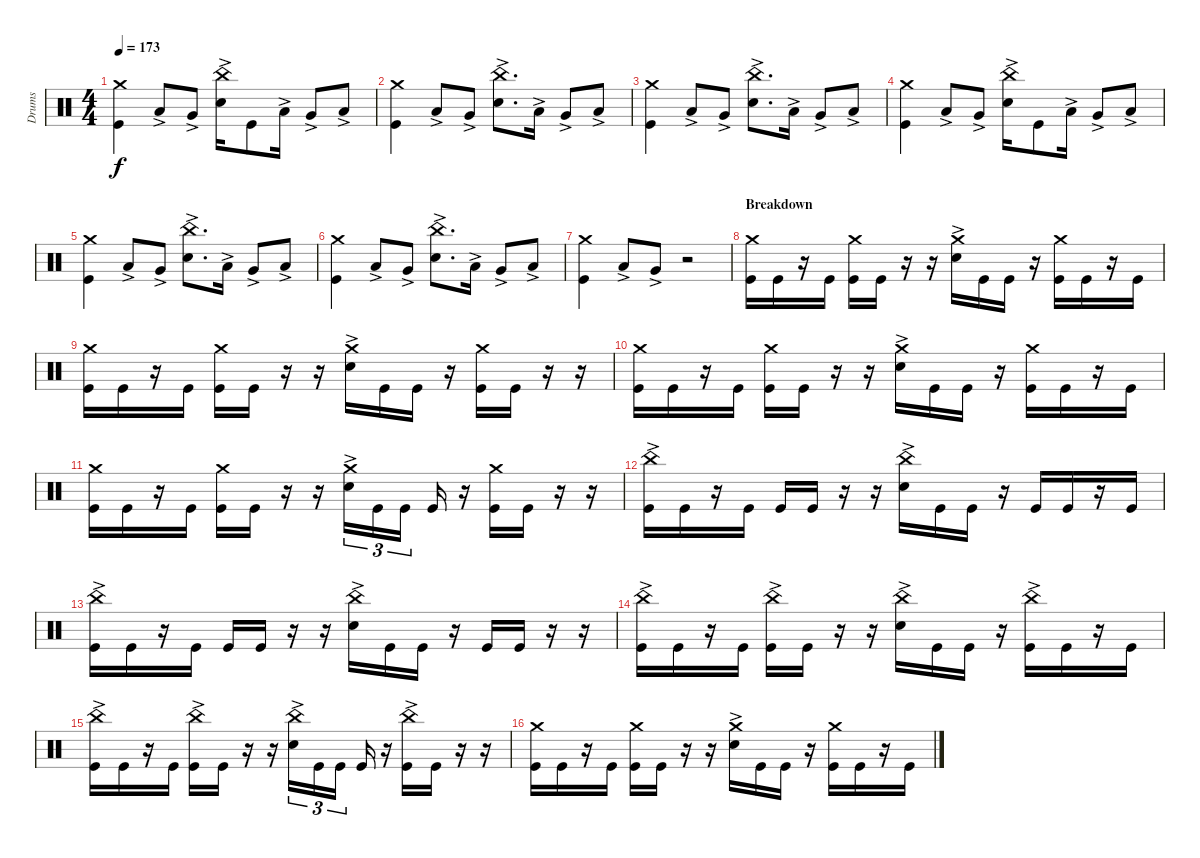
\track ("Drums" "Drums") {instrument percussion}
\staff {score}
\articulation defaults
\ts (4 4)
\tempo 173
\clef neutral
\ks c
("Kick (hit)" "Crash medium (hit)").4{dy f} "Low Tom (hit)"{ac}.8 "Very Low Tom (hit)"{ac}.8 ("Snare (hit) 2"{ac} "China (hit)"{ac}).16 "Kick (hit)".8 "Low Tom (hit)"{ac}.16 "Very Low Tom (hit)"{ac}.8 "Low Floor Tom (hit)"{ac}.8 |
("Kick (hit)" "Crash medium (hit)").4 "Low Tom (hit)"{ac}.8 "Very Low Tom (hit)"{ac}.8 ("Snare (hit) 2"{ac} "China (hit)"{ac}).8{d} "Low Tom (hit)"{ac}.16 "Very Low Tom (hit)"{ac}.8 "Low Floor Tom (hit)"{ac}.8 |
("Kick (hit)" "Crash medium (hit)").4 "Low Tom (hit)"{ac}.8 "Very Low Tom (hit)"{ac}.8 ("Snare (hit) 2"{ac} "China (hit)"{ac}).8{d} "Low Tom (hit)"{ac}.16 "Very Low Tom (hit)"{ac}.8 "Low Floor Tom (hit)"{ac}.8 |
("Kick (hit)" "Crash medium (hit)").4 "Low Tom (hit)"{ac}.8 "Very Low Tom (hit)"{ac}.8 ("Snare (hit) 2"{ac} "China (hit)"{ac}).16 "Kick (hit)".8 "Low Tom (hit)"{ac}.16 "Very Low Tom (hit)"{ac}.8 "Low Floor Tom (hit)"{ac}.8 |
("Kick (hit)" "Crash medium (hit)").4 "Low Tom (hit)"{ac}.8 "Very Low Tom (hit)"{ac}.8 ("Snare (hit) 2"{ac} "China (hit)"{ac}).8{d} "Low Tom (hit)"{ac}.16 "Very Low Tom (hit)"{ac}.8 "Low Floor Tom (hit)"{ac}.8 |
("Kick (hit)" "Crash medium (hit)").4 "Low Tom (hit)"{ac}.8 "Very Low Tom (hit)"{ac}.8 ("Snare (hit) 2"{ac} "China (hit)"{ac}).8{d} "Low Tom (hit)"{ac}.16 "Very Low Tom (hit)"{ac}.8 "Low Floor Tom (hit)"{ac}.8 |
("Kick (hit)" "Crash medium (hit)").4 "Low Tom (hit)"{ac}.8 "Very Low Tom (hit)"{ac}.8 r.2 |
\section ("" "Breakdown")
("Crash medium (hit)" "Kick (hit)").16 "Kick (hit)".16 r.16 "Kick (hit)".16 ("Crash medium (hit)" "Kick (hit)").16 "Kick (hit)".16 r.16 r.16 ("Crash medium (hit)" "Snare (hit) 2"{ac}).16 "Kick (hit)".16 "Kick (hit)".16 r.16 ("Crash medium (hit)" "Kick (hit)").16 "Kick (hit)".16 r.16 "Kick (hit)".16 |
("Crash medium (hit)" "Kick (hit)").16 "Kick (hit)".16 r.16 "Kick (hit)".16 ("Crash medium (hit)" "Kick (hit)").16 "Kick (hit)".16 r.16 r.16 ("Crash medium (hit)" "Snare (hit) 2"{ac}).16 "Kick (hit)".16 "Kick (hit)".16 r.16 ("Crash medium (hit)" "Kick (hit)").16 "Kick (hit)".16 r.16 r.16 |
("Crash medium (hit)" "Kick (hit)").16 "Kick (hit)".16 r.16 "Kick (hit)".16 ("Crash medium (hit)" "Kick (hit)").16 "Kick (hit)".16 r.16 r.16 ("Crash medium (hit)" "Snare (hit) 2"{ac}).16 "Kick (hit)".16 "Kick (hit)".16 r.16 ("Crash medium (hit)" "Kick (hit)").16 "Kick (hit)".16 r.16 "Kick (hit)".16 |
("Crash medium (hit)" "Kick (hit)").16 "Kick (hit)".16 r.16 "Kick (hit)".16 ("Crash medium (hit)" "Kick (hit)").16 "Kick (hit)".16 r.16 r.16 ("Crash medium (hit)" "Snare (hit) 2"{ac}).16{tu (3 2)} "Kick (hit)".16{tu (3 2)} "Kick (hit)".16{tu (3 2)} "Kick (hit)".16 r.16 ("Kick (hit)" "Crash medium (hit)").16 "Kick (hit)".16 r.16 r.16 |
("Kick (hit)" "China (hit)"{ac}).16 "Kick (hit)".16 r.16 "Kick (hit)".16 "Kick (hit)".16 "Kick (hit)".16 r.16 r.16 ("Snare (hit) 2"{ac} "China (hit)"{ac}).16 "Kick (hit)".16 "Kick (hit)".16 r.16 "Kick (hit)".16 "Kick (hit)".16 r.16 "Kick (hit)".16 |
("Kick (hit)" "China (hit)"{ac}).16 "Kick (hit)".16 r.16 "Kick (hit)".16 "Kick (hit)".16 "Kick (hit)".16 r.16 r.16 ("Snare (hit) 2"{ac} "China (hit)"{ac}).16 "Kick (hit)".16 "Kick (hit)".16 r.16 "Kick (hit)".16 "Kick (hit)".16 r.16 r.16 |
("Kick (hit)" "China (hit)"{ac}).16 "Kick (hit)".16 r.16 "Kick (hit)".16 ("Kick (hit)" "China (hit)"{ac}).16 "Kick (hit)".16 r.16 r.16 ("Snare (hit) 2"{ac} "China (hit)"{ac}).16 "Kick (hit)".16 "Kick (hit)".16 r.16 ("Kick (hit)" "China (hit)"{ac}).16 "Kick (hit)".16 r.16 "Kick (hit)".16 |
("Kick (hit)" "China (hit)"{ac}).16 "Kick (hit)".16 r.16 "Kick (hit)".16 ("Kick (hit)" "China (hit)"{ac}).16 "Kick (hit)".16 r.16 r.16 ("Snare (hit) 2"{ac} "China (hit)"{ac}).16{tu (3 2)} "Kick (hit)".16{tu (3 2)} "Kick (hit)".16{tu (3 2)} "Kick (hit)".16 r.16 ("Kick (hit)" "China (hit)"{ac}).16 "Kick (hit)".16 r.16 r.16 |
("Crash medium (hit)" "Kick (hit)").16 "Kick (hit)".16 r.16 "Kick (hit)".16 ("Crash medium (hit)" "Kick (hit)").16 "Kick (hit)".16 r.16 r.16 ("Crash medium (hit)" "Snare (hit) 2"{ac}).16 "Kick (hit)".16 "Kick (hit)".16 r.16 ("Crash medium (hit)" "Kick (hit)").16 "Kick (hit)".16 r.16 "Kick (hit)".16
